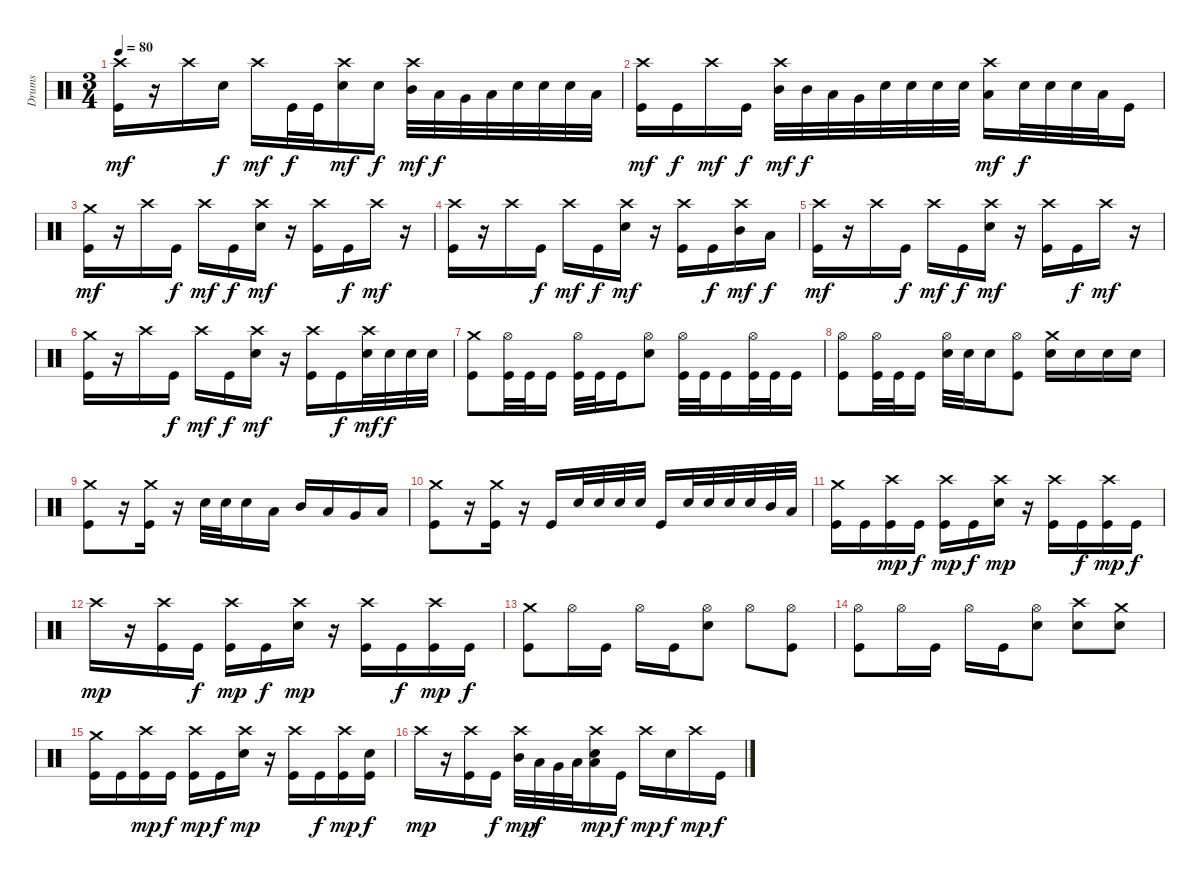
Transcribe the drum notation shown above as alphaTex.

\track ("Drums" "Drums") {instrument percussion}
\staff {score}
\articulation defaults
\ts (3 4)
\tempo 80
\clef neutral
\ks c
("Crash high (hit)" "Kick (hit)").16{dy mf} r.16 "Crash high (hit)".16 "Electric Snare (hit)".16{dy f} "Crash high (hit)".16{dy mf} "Kick (hit)".32{dy f} "Kick (hit)".32 ("Crash high (hit)" "Electric Snare (hit)").16{dy mf} "Electric Snare (hit)".16{dy f} ("Crash high (hit)" "Mid Tom (hit)").32{dy mf} "Low Tom (hit)".32{dy f} "Very Low Tom (hit)".32 "Low Floor Tom (hit)".32 "Electric Snare (hit)".32 "Electric Snare (hit)".32 "Electric Snare (hit)".32 "Low Floor Tom (hit)".32 |
("Crash high (hit)" "Kick (hit)").16{dy mf} "Kick (hit)".16{dy f} "Crash high (hit)".16{dy mf} "Kick (hit)".16{dy f} ("Crash high (hit)" "Mid Tom (hit)").32{dy mf} "Mid Tom (hit)".32{dy f} "Low Tom (hit)".32 "Very Low Tom (hit)".32 "Electric Snare (hit)".32 "Electric Snare (hit)".32 "Electric Snare (hit)".32 "Electric Snare (hit)".32 ("Crash high (hit)" "Low Floor Tom (hit)").16{dy mf} "Electric Snare (hit)".32{dy f} "Electric Snare (hit)".32 "Electric Snare (hit)".32 "Low Floor Tom (hit)".32 "Kick (hit)".16 |
("Crash medium (hit)" "Kick (hit)").16{dy mf} r.16 "Crash high (hit)".16 "Kick (hit)".16{dy f} "Crash high (hit)".16{dy mf} "Kick (hit)".16{dy f} ("Crash high (hit)" "Electric Snare (hit)").16{dy mf} r.16 ("Crash high (hit)" "Kick (hit)").16 "Kick (hit)".16{dy f} "Crash high (hit)".16{dy mf} r.16 |
("Crash high (hit)" "Kick (hit)").16 r.16 "Crash high (hit)".16 "Kick (hit)".16{dy f} "Crash high (hit)".16{dy mf} "Kick (hit)".16{dy f} ("Crash high (hit)" "Electric Snare (hit)").16{dy mf} r.16 ("Crash high (hit)" "Kick (hit)").16 "Kick (hit)".16{dy f} ("Crash high (hit)" "Mid Tom (hit)").16{dy mf} "Low Tom (hit)".16{dy f} |
("Crash high (hit)" "Kick (hit)").16{dy mf} r.16 "Crash high (hit)".16 "Kick (hit)".16{dy f} "Crash high (hit)".16{dy mf} "Kick (hit)".16{dy f} ("Crash high (hit)" "Electric Snare (hit)").16{dy mf} r.16 ("Crash high (hit)" "Kick (hit)").16 "Kick (hit)".16{dy f} "Crash high (hit)".16{dy mf} r.16 |
("Crash medium (hit)" "Kick (hit)").16 r.16 "Crash high (hit)".16 "Kick (hit)".16{dy f} "Crash high (hit)".16{dy mf} "Kick (hit)".16{dy f} ("Crash high (hit)" "Electric Snare (hit)").16{dy mf} r.16 ("Crash high (hit)" "Kick (hit)").16 "Kick (hit)".16{dy f} ("Crash high (hit)" "Electric Snare (hit)").32{dy mf} "Electric Snare (hit)".32{dy f} "Electric Snare (hit)".32 "Electric Snare (hit)".32 |
("Crash medium (hit)" "Kick (hit)").8 ("Hi-Hat (open)" "Kick (hit)").32 "Kick (hit)".32 "Kick (hit)".16 ("Hi-Hat (open)" "Kick (hit)").32 "Kick (hit)".32 "Kick (hit)".16 ("Hi-Hat (open)" "Electric Snare (hit)").8 ("Hi-Hat (open)" "Kick (hit)").32 "Kick (hit)".32 "Kick (hit)".16 ("Hi-Hat (open)" "Kick (hit)").32 "Kick (hit)".32 "Kick (hit)".16 |
("Hi-Hat (open)" "Kick (hit)").8 ("Hi-Hat (open)" "Kick (hit)").32 "Kick (hit)".32 "Kick (hit)".16 ("Hi-Hat (open)" "Electric Snare (hit)").32 "Electric Snare (hit)".32 "Electric Snare (hit)".16 ("Hi-Hat (open)" "Kick (hit)").8 ("Crash medium (hit)" "Electric Snare (hit)").16 "Electric Snare (hit)".16 "Electric Snare (hit)".16 "Electric Snare (hit)".16 |
("Crash medium (hit)" "Kick (hit)").8 r.16 ("Crash medium (hit)" "Kick (hit)").16 r.16 "Electric Snare (hit)".32 "Electric Snare (hit)".32 "Electric Snare (hit)".16 "Low Tom (hit)".16 "Mid Tom (hit)".16 "Low Tom (hit)".16 "Very Low Tom (hit)".16 "Low Floor Tom (hit)".16 |
("Crash medium (hit)" "Kick (hit)").8 r.16 ("Crash medium (hit)" "Kick (hit)").16 r.16 "Kick (hit)".16 "Electric Snare (hit)".32 "Electric Snare (hit)".32 "Electric Snare (hit)".32 "Electric Snare (hit)".32 "Kick (hit)".16 "Electric Snare (hit)".32 "Electric Snare (hit)".32 "Electric Snare (hit)".32 "Electric Snare (hit)".32 "Mid Tom (hit)".32 "Low Tom (hit)".32 |
("Crash medium (hit)" "Kick (hit)").16 "Kick (hit)".16 ("Crash high (hit)" "Kick (hit)").16{dy mp} "Kick (hit)".16{dy f} ("Crash high (hit)" "Kick (hit)").16{dy mp} "Kick (hit)".16{dy f} ("Crash high (hit)" "Electric Snare (hit)").16{dy mp} r.16 ("Crash high (hit)" "Kick (hit)").16 "Kick (hit)".16{dy f} ("Crash high (hit)" "Kick (hit)").16{dy mp} "Kick (hit)".16{dy f} |
"Crash high (hit)".16{dy mp} r.16 ("Crash high (hit)" "Kick (hit)").16 "Kick (hit)".16{dy f} ("Crash high (hit)" "Kick (hit)").16{dy mp} "Kick (hit)".16{dy f} ("Crash high (hit)" "Electric Snare (hit)").16{dy mp} r.16 ("Crash high (hit)" "Kick (hit)").16 "Kick (hit)".16{dy f} ("Crash high (hit)" "Kick (hit)").16{dy mp} "Kick (hit)".16{dy f} |
("Crash medium (hit)" "Kick (hit)").8 "Hi-Hat (open)".16 "Kick (hit)".16 "Hi-Hat (open)".16 "Kick (hit)".16 ("Hi-Hat (open)" "Electric Snare (hit)").8 "Hi-Hat (open)".8 ("Hi-Hat (open)" "Kick (hit)").8 |
("Hi-Hat (open)" "Kick (hit)").8 "Hi-Hat (open)".16 "Kick (hit)".16 "Hi-Hat (open)".16 "Kick (hit)".16 ("Hi-Hat (open)" "Electric Snare (hit)").8 ("Crash high (hit)" "Electric Snare (hit)").8 ("Crash medium (hit)" "Electric Snare (hit)").8 |
("Crash medium (hit)" "Kick (hit)").16 "Kick (hit)".16 ("Crash high (hit)" "Kick (hit)").16{dy mp} "Kick (hit)".16{dy f} ("Crash high (hit)" "Kick (hit)").16{dy mp} "Kick (hit)".16{dy f} ("Crash high (hit)" "Electric Snare (hit)").16{dy mp} r.16 ("Crash high (hit)" "Kick (hit)").16 "Kick (hit)".16{dy f} ("Crash high (hit)" "Kick (hit)").16{dy mp} ("Electric Snare (hit)" "Kick (hit)").16{dy f} |
"Crash high (hit)".16{dy mp} r.16 ("Crash high (hit)" "Kick (hit)").16 "Kick (hit)".16{dy f} ("Crash high (hit)" "Mid Tom (hit)").32{dy mp} "Low Tom (hit)".32{dy f} "Very Low Tom (hit)".32 "Low Floor Tom (hit)".32 ("Crash high (hit)" "Electric Snare (hit)" "Low Floor Tom (hit)").16{dy mp} "Kick (hit)".16{dy f} "Crash high (hit)".16{dy mp} "Electric Snare (hit)".16{dy f} "Crash high (hit)".16{dy mp} "Kick (hit)".16{dy f}
